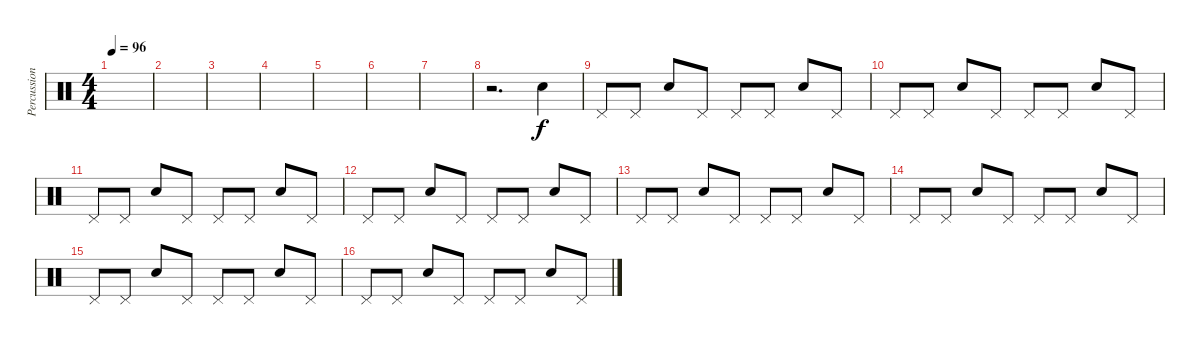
\track ("Percussions" "Percussion") {instrument percussion}
\staff {score}
\articulation defaults
\ts (4 4)
\tempo 96
\clef neutral
\ks c
|
|
|
|
|
|
|
r.2{d} "Snare (hit) 2".4 |
"Pedal Hi-Hat (hit)".8 "Pedal Hi-Hat (hit)".8 "Snare (hit) 2".8 "Pedal Hi-Hat (hit)".8 "Pedal Hi-Hat (hit)".8 "Pedal Hi-Hat (hit)".8 "Snare (hit) 2".8 "Pedal Hi-Hat (hit)".8 |
"Pedal Hi-Hat (hit)".8 "Pedal Hi-Hat (hit)".8 "Snare (hit) 2".8 "Pedal Hi-Hat (hit)".8 "Pedal Hi-Hat (hit)".8 "Pedal Hi-Hat (hit)".8 "Snare (hit) 2".8 "Pedal Hi-Hat (hit)".8 |
"Pedal Hi-Hat (hit)".8 "Pedal Hi-Hat (hit)".8 "Snare (hit) 2".8 "Pedal Hi-Hat (hit)".8 "Pedal Hi-Hat (hit)".8 "Pedal Hi-Hat (hit)".8 "Snare (hit) 2".8 "Pedal Hi-Hat (hit)".8 |
"Pedal Hi-Hat (hit)".8 "Pedal Hi-Hat (hit)".8 "Snare (hit) 2".8 "Pedal Hi-Hat (hit)".8 "Pedal Hi-Hat (hit)".8 "Pedal Hi-Hat (hit)".8 "Snare (hit) 2".8 "Pedal Hi-Hat (hit)".8 |
"Pedal Hi-Hat (hit)".8 "Pedal Hi-Hat (hit)".8 "Snare (hit) 2".8 "Pedal Hi-Hat (hit)".8 "Pedal Hi-Hat (hit)".8 "Pedal Hi-Hat (hit)".8 "Snare (hit) 2".8 "Pedal Hi-Hat (hit)".8 |
"Pedal Hi-Hat (hit)".8 "Pedal Hi-Hat (hit)".8 "Snare (hit) 2".8 "Pedal Hi-Hat (hit)".8 "Pedal Hi-Hat (hit)".8 "Pedal Hi-Hat (hit)".8 "Snare (hit) 2".8 "Pedal Hi-Hat (hit)".8 |
"Pedal Hi-Hat (hit)".8 "Pedal Hi-Hat (hit)".8 "Snare (hit) 2".8 "Pedal Hi-Hat (hit)".8 "Pedal Hi-Hat (hit)".8 "Pedal Hi-Hat (hit)".8 "Snare (hit) 2".8 "Pedal Hi-Hat (hit)".8 |
"Pedal Hi-Hat (hit)".8 "Pedal Hi-Hat (hit)".8 "Snare (hit) 2".8 "Pedal Hi-Hat (hit)".8 "Pedal Hi-Hat (hit)".8 "Pedal Hi-Hat (hit)".8 "Snare (hit) 2".8 "Pedal Hi-Hat (hit)".8
